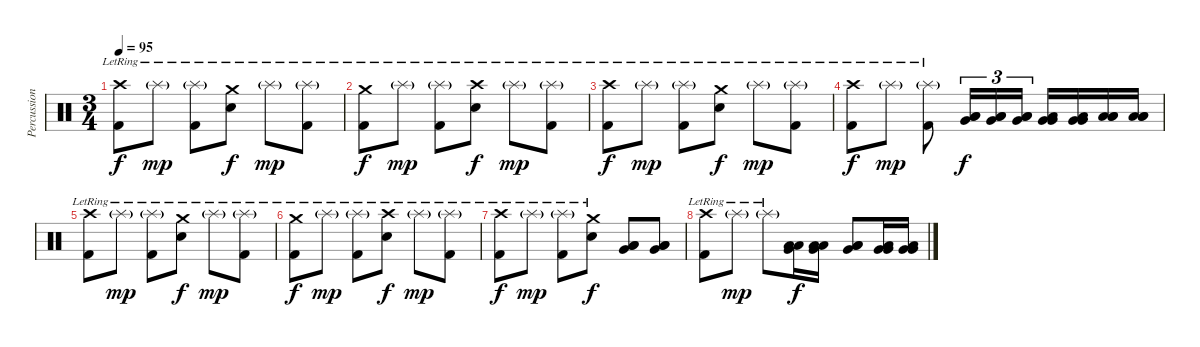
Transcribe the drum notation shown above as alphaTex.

\track ("Percussion I" "Percussion") {instrument percussion}
\staff {score}
\articulation defaults
\ts (3 4)
\tempo 95
\clef neutral
\ks c
("Crash high (hit)"{lr} "Kick (hit) 2").8{dy f} "Splash (hit)"{g lr}.8{dy mp} ("Splash (hit)"{g lr} "Kick (hit) 2").8 ("Crash medium (hit)"{lr} "Electric Snare (hit)").8{dy f} "Splash (hit)"{g lr}.8{dy mp} ("Splash (hit)"{g lr} "Kick (hit) 2").8 |
("Crash medium (hit)"{lr} "Kick (hit) 2").8{dy f} "Splash (hit)"{g lr}.8{dy mp} ("Splash (hit)"{g lr} "Kick (hit) 2").8 ("Crash high (hit)"{lr} "Electric Snare (hit)").8{dy f} "Splash (hit)"{g lr}.8{dy mp} ("Splash (hit)"{g lr} "Kick (hit) 2").8 |
("Crash high (hit)"{lr} "Kick (hit) 2").8{dy f} "Splash (hit)"{g lr}.8{dy mp} ("Splash (hit)"{g lr} "Kick (hit) 2").8 ("Crash medium (hit)"{lr} "Electric Snare (hit)").8{dy f} "Splash (hit)"{g lr}.8{dy mp} ("Splash (hit)"{g lr} "Kick (hit) 2").8 |
("Crash high (hit)"{lr} "Kick (hit) 2").8{dy f} "Splash (hit)"{g lr}.8{dy mp} ("Splash (hit)"{g lr} "Kick (hit) 2").8 ("Low Tom (hit)" "Low Tom (hit)" "Very Low Tom (hit)").16{tu (3 2) dy f} ("Low Tom (hit)" "Low Tom (hit)" "Very Low Tom (hit)").16{tu (3 2)} ("Low Tom (hit)" "Low Tom (hit)" "Very Low Tom (hit)").16{tu (3 2)} ("Very Low Tom (hit)" "Very Low Tom (hit)" "Low Floor Tom (hit)").16 ("Very Low Tom (hit)" "Very Low Tom (hit)" "Low Floor Tom (hit)").16 ("Low Floor Tom (hit)" "Low Floor Tom (hit)" "Low Floor Tom (hit)").16 ("Low Floor Tom (hit)" "Low Floor Tom (hit)" "Low Floor Tom (hit)").16 |
("Crash high (hit)"{lr} "Kick (hit) 2").8 "Splash (hit)"{g lr}.8{dy mp} ("Splash (hit)"{g lr} "Kick (hit) 2").8 ("Crash medium (hit)"{lr} "Electric Snare (hit)").8{dy f} "Splash (hit)"{g lr}.8{dy mp} ("Splash (hit)"{g lr} "Kick (hit) 2").8 |
("Crash medium (hit)"{lr} "Kick (hit) 2").8{dy f} "Splash (hit)"{g lr}.8{dy mp} ("Splash (hit)"{g lr} "Kick (hit) 2").8 ("Crash high (hit)"{lr} "Electric Snare (hit)").8{dy f} "Splash (hit)"{g lr}.8{dy mp} ("Splash (hit)"{g lr} "Kick (hit) 2").8 |
("Crash high (hit)"{lr} "Kick (hit) 2").8{dy f} "Splash (hit)"{g lr}.8{dy mp} ("Splash (hit)"{g lr} "Kick (hit) 2").8 ("Crash medium (hit)"{lr} "Electric Snare (hit)").8{dy f} ("Low Tom (hit)" "Low Tom (hit)" "Very Low Tom (hit)").8 ("Low Tom (hit)" "Low Tom (hit)" "Very Low Tom (hit)").8 |
("Crash high (hit)"{lr} "Kick (hit) 2").8 "Splash (hit)"{g lr}.8{dy mp} "Splash (hit)"{g lr}.8 ("Low Tom (hit)" "Low Tom (hit)" "Very Low Tom (hit)").16{dy f} ("Low Tom (hit)" "Low Tom (hit)" "Very Low Tom (hit)").16 ("Low Tom (hit)" "Low Tom (hit)" "Very Low Tom (hit)").8 ("Very Low Tom (hit)" "Very Low Tom (hit)" "Low Floor Tom (hit)").16 ("Very Low Tom (hit)" "Very Low Tom (hit)" "Low Floor Tom (hit)").16
